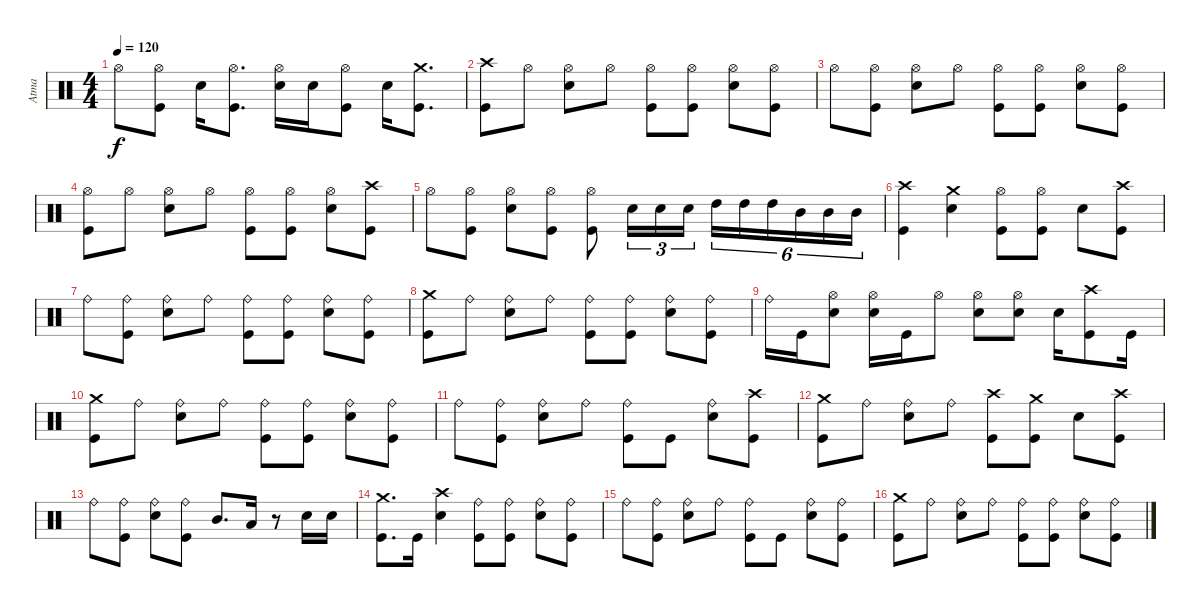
\track ("Atma" "Atma") {instrument percussion}
\staff {score}
\articulation defaults
\ts (4 4)
\tempo 120
\clef neutral
\ks c "Hi-Hat (open)".8{dy f}
("Kick (hit)" "Hi-Hat (open)").8 "Snare (hit) 2".16 ("Kick (hit)" "Hi-Hat (open)").8{d} ("Snare (hit) 2" "Hi-Hat (open)").16 "Snare (hit) 2".16 ("Kick (hit)" "Hi-Hat (open)").8 "Snare (hit) 2".16 ("Kick (hit)" "Crash medium (hit)").8{d} |
("Kick (hit)" "Crash high (hit)").8 "Hi-Hat (open)".8 ("Snare (hit) 2" "Hi-Hat (open)").8 "Hi-Hat (open)".8 ("Kick (hit)" "Hi-Hat (open)").8 ("Kick (hit)" "Hi-Hat (open)").8 ("Snare (hit) 2" "Hi-Hat (open)").8 ("Kick (hit)" "Hi-Hat (open)").8 |
"Hi-Hat (open)".8 ("Kick (hit)" "Hi-Hat (open)").8 ("Snare (hit) 2" "Hi-Hat (open)").8 "Hi-Hat (open)".8 ("Kick (hit)" "Hi-Hat (open)").8 ("Kick (hit)" "Hi-Hat (open)").8 ("Snare (hit) 2" "Hi-Hat (open)").8 ("Kick (hit)" "Hi-Hat (open)").8 |
("Kick (hit)" "Hi-Hat (open)").8 "Hi-Hat (open)".8 ("Snare (hit) 2" "Hi-Hat (open)").8 "Hi-Hat (open)".8 ("Kick (hit)" "Hi-Hat (open)").8 ("Kick (hit)" "Hi-Hat (open)").8 ("Snare (hit) 2" "Hi-Hat (open)").8 ("Kick (hit)" "Crash high (hit)").8 |
"Hi-Hat (open)".8 ("Kick (hit)" "Hi-Hat (open)").8 ("Snare (hit) 2" "Hi-Hat (open)").8 ("Kick (hit)" "Hi-Hat (open)").8 ("Kick (hit)" "Hi-Hat (open)").8 "Snare (hit) 2".16{tu (3 2)} "Snare (hit) 2".16{tu (3 2)} "Snare (hit) 2".16{tu (3 2)} "High Tom (hit)".16{tu (6 4)} "High Tom (hit)".16{tu (6 4)} "High Tom (hit)".16{tu (6 4)} "Mid Tom (hit)".16{tu (6 4)} "Mid Tom (hit)".16{tu (6 4)} "Mid Tom (hit)".16{tu (6 4)} |
("Kick (hit)" "Crash high (hit)").4 ("Snare (hit) 2" "Crash medium (hit)").4 ("Kick (hit)" "Hi-Hat (open)").8 ("Kick (hit)" "Hi-Hat (open)").8 "Snare (hit) 2".8 ("Kick (hit)" "Crash high (hit)").8 |
"Ride (bell)".8 ("Kick (hit)" "Ride (bell)").8 ("Snare (hit) 2" "Ride (bell)").8 "Ride (bell)".8 ("Kick (hit)" "Ride (bell)").8 ("Kick (hit)" "Ride (bell)").8 ("Snare (hit) 2" "Ride (bell)").8 ("Kick (hit)" "Ride (bell)").8 |
("Kick (hit)" "Crash medium (hit)").8 "Ride (bell)".8 ("Snare (hit) 2" "Ride (bell)").8 "Ride (bell)".8 ("Kick (hit)" "Ride (bell)").8 ("Kick (hit)" "Ride (bell)").8 ("Snare (hit) 2" "Ride (bell)").8 ("Kick (hit)" "Ride (bell)").8 |
"Ride (bell)".16 "Kick (hit)".16 ("Snare (hit) 2" "Hi-Hat (open)").8 ("Snare (hit) 2" "Hi-Hat (open)").16 "Kick (hit)".16 "Hi-Hat (open)".8 ("Snare (hit) 2" "Hi-Hat (open)").8 ("Snare (hit) 2" "Hi-Hat (open)").8 "Snare (hit) 2".16 ("Kick (hit)" "Crash high (hit)").8 "Kick (hit)".16 |
("Kick (hit)" "Crash medium (hit)").8 "Ride (bell)".8 ("Snare (hit) 2" "Ride (bell)").8 "Ride (bell)".8 ("Kick (hit)" "Ride (bell)").8 ("Kick (hit)" "Ride (bell)").8 ("Snare (hit) 2" "Ride (bell)").8 ("Kick (hit)" "Ride (bell)").8 |
"Ride (bell)".8 ("Kick (hit)" "Ride (bell)").8 ("Snare (hit) 2" "Ride (bell)").8 "Ride (bell)".8 ("Kick (hit)" "Ride (bell)").8 "Kick (hit)".8 ("Snare (hit) 2" "Ride (bell)").8 ("Kick (hit)" "Crash high (hit)").8 |
("Kick (hit)" "Crash medium (hit)").8 "Ride (bell)".8 ("Snare (hit) 2" "Ride (bell)").8 "Ride (bell)".8 ("Kick (hit)" "Crash high (hit)").8 ("Kick (hit)" "Crash medium (hit)").8 "Snare (hit) 2".8 ("Kick (hit)" "Crash high (hit)").8 |
"Ride (bell)".8 ("Kick (hit)" "Ride (bell)").8 ("Snare (hit) 2" "Ride (bell)").8 ("Kick (hit)" "Ride (bell)").8 "Mid Tom (hit)".8{d} "Low Tom (hit)".16 r.8 "Snare (hit) 2".16 "Snare (hit) 2".16 |
("Kick (hit)" "Crash medium (hit)").8{d} "Kick (hit)".16 ("Snare (hit) 2" "Crash high (hit)").4 ("Kick (hit)" "Ride (bell)").8 ("Kick (hit)" "Ride (bell)").8 ("Snare (hit) 2" "Ride (bell)").8 ("Kick (hit)" "Ride (bell)").8 |
"Ride (bell)".8 ("Kick (hit)" "Ride (bell)").8 ("Snare (hit) 2" "Ride (bell)").8 "Ride (bell)".8 ("Kick (hit)" "Ride (bell)").8 "Kick (hit)".8 ("Snare (hit) 2" "Ride (bell)").8 ("Kick (hit)" "Ride (bell)").8 |
("Kick (hit)" "Crash medium (hit)").8 "Ride (bell)".8 ("Snare (hit) 2" "Ride (bell)").8 "Ride (bell)".8 ("Kick (hit)" "Ride (bell)").8 ("Kick (hit)" "Ride (bell)").8 ("Snare (hit) 2" "Ride (bell)").8 ("Kick (hit)" "Ride (bell)").8
